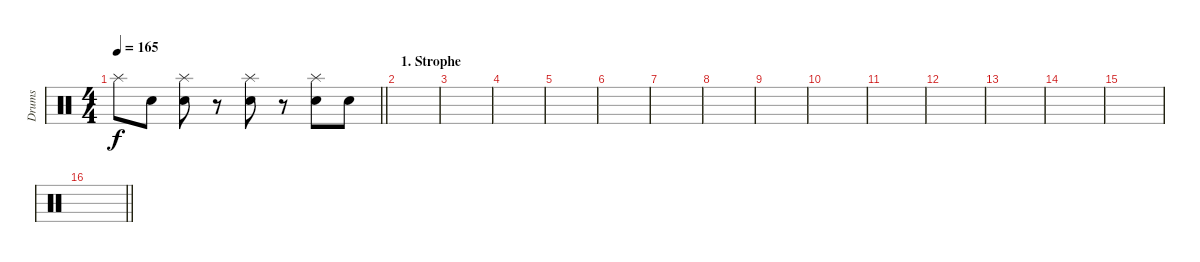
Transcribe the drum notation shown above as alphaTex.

\track ("Drums" "Drums") {instrument percussion}
\staff {score}
\articulation defaults
\ts (4 4)
\tempo 165
\clef neutral
\barLineRight lightlight
\ks c "Splash (hit)".8{dy f} "Snare (hit) 2".8
("Snare (hit) 2" "Splash (hit)").8 r.8 ("Snare (hit) 2" "Splash (hit)").8 r.8 ("Snare (hit) 2" "Splash (hit)").8 "Snare (hit) 2".8 |
\section ("" "1. Strophe")
|
|
|
|
|
|
|
|
|
|
|
|
|
|
\barLineRight lightlight
